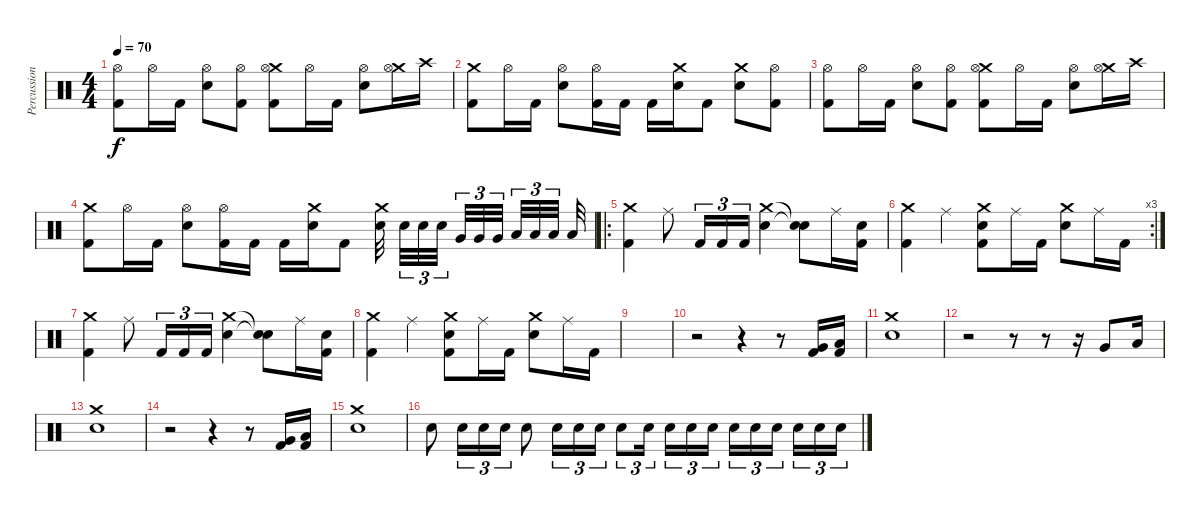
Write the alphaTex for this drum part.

\track ("Percussion" "Percussion") {instrument percussion}
\staff {score}
\articulation defaults
\ts (4 4)
\tempo 70
\clef neutral
\ks c
("Hi-Hat (open)" "Kick (hit) 2").8{dy f} "Hi-Hat (open)".16 "Kick (hit) 2".16 ("Hi-Hat (open)" "Electric Snare (hit)").8 ("Hi-Hat (open)" "Kick (hit) 2").8 ("Crash medium (hit)" "Hi-Hat (open)" "Kick (hit) 2").8 "Hi-Hat (open)".16 "Kick (hit) 2".16 ("Hi-Hat (open)" "Electric Snare (hit)").8 ("Crash medium (hit)" "Hi-Hat (open)").16 "Crash high (hit)".16 |
("Crash medium (hit)" "Kick (hit) 2").8 "Hi-Hat (open)".16 "Kick (hit) 2".16 ("Hi-Hat (open)" "Electric Snare (hit)").8 ("Hi-Hat (open)" "Kick (hit) 2").16 "Kick (hit) 2".16 "Kick (hit) 2".16 ("Crash medium (hit)" "Electric Snare (hit)").16 "Kick (hit) 2".8 ("Crash medium (hit)" "Electric Snare (hit)").8 ("Hi-Hat (open)" "Kick (hit) 2").8 |
("Hi-Hat (open)" "Kick (hit) 2").8 "Hi-Hat (open)".16 "Kick (hit) 2".16 ("Hi-Hat (open)" "Electric Snare (hit)").8 ("Hi-Hat (open)" "Kick (hit) 2").8 ("Crash medium (hit)" "Hi-Hat (open)" "Kick (hit) 2").8 "Hi-Hat (open)".16 "Kick (hit) 2".16 ("Hi-Hat (open)" "Electric Snare (hit)").8 ("Crash medium (hit)" "Hi-Hat (open)").16 "Crash high (hit)".16 |
("Crash medium (hit)" "Kick (hit) 2").8 "Hi-Hat (open)".16 "Kick (hit) 2".16 ("Hi-Hat (open)" "Electric Snare (hit)").8 ("Hi-Hat (open)" "Kick (hit) 2").16 "Kick (hit) 2".16 "Kick (hit) 2".16 ("Crash medium (hit)" "Electric Snare (hit)").16 "Kick (hit) 2".8 ("Crash medium (hit)" "Electric Snare (hit)").32{beam splitsecondary} "Electric Snare (hit)".32{tu (3 2)} "Electric Snare (hit)".32{tu (3 2)} "Electric Snare (hit)".32{tu (3 2) beam splitsecondary} "Very Low Tom (hit)".32{tu (3 2)} "Very Low Tom (hit)".32{tu (3 2)} "Very Low Tom (hit)".32{tu (3 2) beam splitsecondary} "Low Floor Tom (hit)".32{tu (3 2)} "Low Floor Tom (hit)".32{tu (3 2)} "Low Floor Tom (hit)".32{tu (3 2) beam splitsecondary} "Low Floor Tom (hit)".32 |
\ro
("Crash medium (hit)" "Kick (hit) 2").4 "Ride (middle)".8 "Kick (hit) 2".16{tu (3 2)} "Kick (hit) 2".16{tu (3 2)} "Kick (hit) 2".16{tu (3 2)} ("Crash medium (hit)" "Electric Snare (hit)").4 ("Snare (hit)"{t} "Snare (hit)"{t}).8 "Ride (middle)".16 ("Electric Snare (hit)" "Kick (hit) 2").16 |
\rc 3
("Crash medium (hit)" "Kick (hit) 2").4 "Ride (middle)".4 ("Crash medium (hit)" "Electric Snare (hit)" "Kick (hit) 2").8 "Ride (middle)".16 "Kick (hit) 2".16 ("Crash medium (hit)" "Electric Snare (hit)").8 "Ride (middle)".16 "Kick (hit) 2".16 |
("Crash medium (hit)" "Kick (hit) 2").4 "Ride (middle)".8 "Kick (hit) 2".16{tu (3 2)} "Kick (hit) 2".16{tu (3 2)} "Kick (hit) 2".16{tu (3 2)} ("Crash medium (hit)" "Electric Snare (hit)").4 ("Snare (hit)"{t} "Snare (hit)"{t}).8 "Ride (middle)".16 ("Electric Snare (hit)" "Kick (hit) 2").16 |
("Crash medium (hit)" "Kick (hit) 2").4 "Ride (middle)".4 ("Crash medium (hit)" "Electric Snare (hit)" "Kick (hit) 2").8 "Ride (middle)".16 "Kick (hit) 2".16 ("Crash medium (hit)" "Electric Snare (hit)").8 "Ride (middle)".16 "Kick (hit) 2".16 |
|
r.2 r.4 r.8 ("Very Low Tom (hit)" "Kick (hit) 2").16 ("Low Floor Tom (hit)" "Kick (hit) 2").16 |
("Crash medium (hit)" "Electric Snare (hit)").1 |
r.2 r.8 r.8 r.16 "Very Low Tom (hit)".8 "Low Floor Tom (hit)".16 |
("Crash medium (hit)" "Electric Snare (hit)").1 |
r.2 r.4 r.8 ("Very Low Tom (hit)" "Kick (hit) 2").16 ("Low Floor Tom (hit)" "Kick (hit) 2").16 |
("Crash medium (hit)" "Electric Snare (hit)").1 |
"Electric Snare (hit)".8 "Electric Snare (hit)".16{tu (3 2)} "Electric Snare (hit)".16{tu (3 2)} "Electric Snare (hit)".16{tu (3 2)} "Electric Snare (hit)".8 "Electric Snare (hit)".16{tu (3 2)} "Electric Snare (hit)".16{tu (3 2)} "Electric Snare (hit)".16{tu (3 2)} "Electric Snare (hit)".8{tu (3 2)} "Electric Snare (hit)".16{tu (3 2) beam splitsecondary} "Electric Snare (hit)".16{tu (3 2)} "Electric Snare (hit)".16{tu (3 2)} "Electric Snare (hit)".16{tu (3 2)} "Electric Snare (hit)".16{tu (3 2)} "Electric Snare (hit)".16{tu (3 2)} "Electric Snare (hit)".16{tu (3 2) beam splitsecondary} "Electric Snare (hit)".16{tu (3 2)} "Electric Snare (hit)".16{tu (3 2)} "Electric Snare (hit)".16{tu (3 2)}
